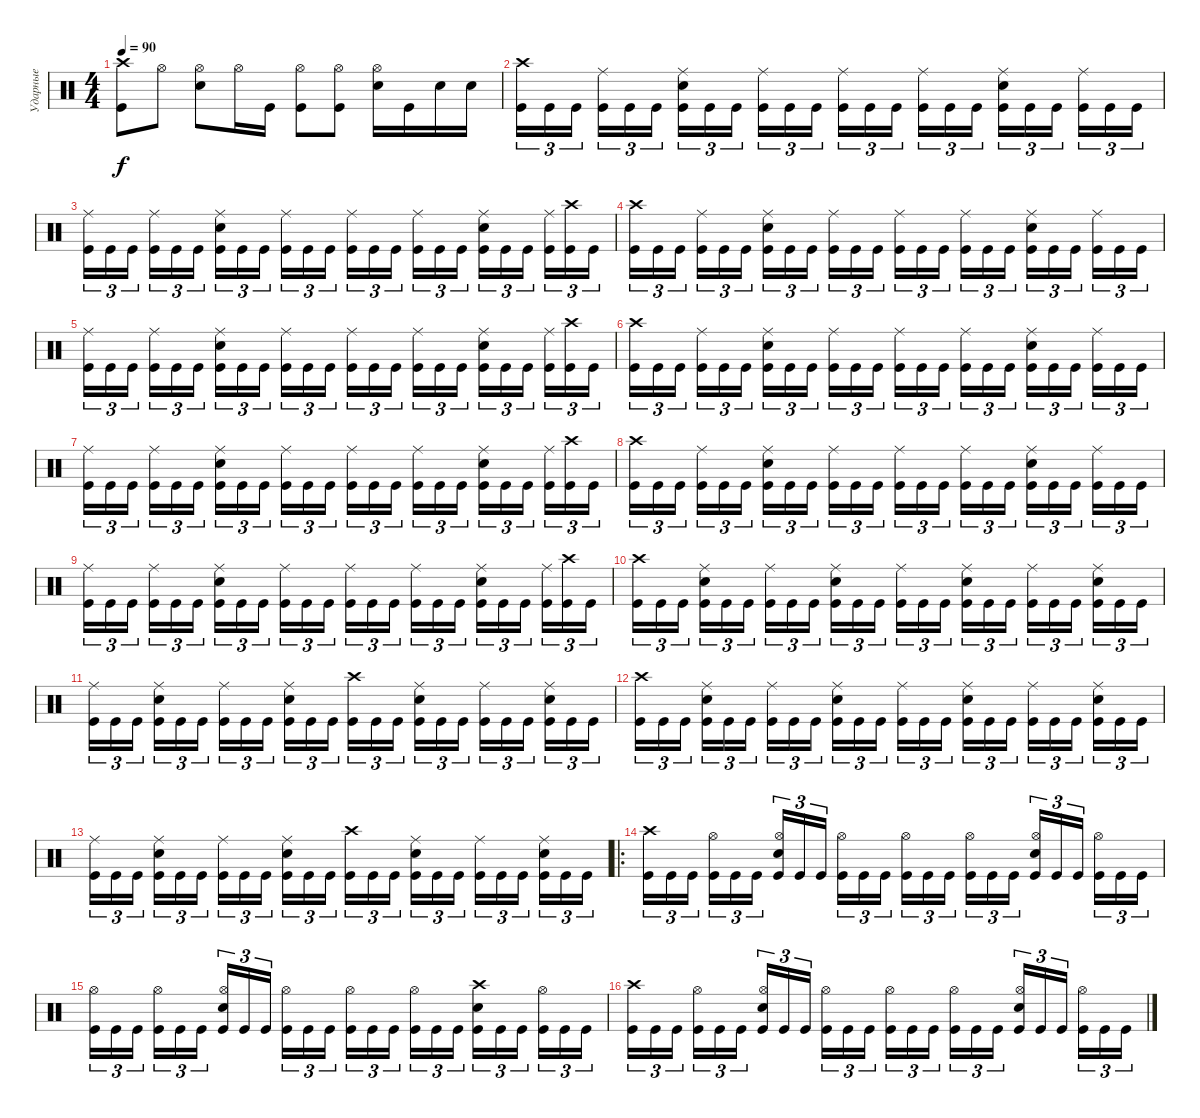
\track ("Ударные" "Ударные") {instrument percussion}
\staff {score}
\articulation defaults
\ts (4 4)
\tempo 90
\clef neutral
\ks c
("Crash high (hit)" "Kick (hit)").8{dy f} "Hi-Hat (open)".8 ("Hi-Hat (open)" "Snare (hit) 2").8 "Hi-Hat (open)".16 "Kick (hit)".16 ("Hi-Hat (open)" "Kick (hit)").8 ("Kick (hit)" "Hi-Hat (open)").8 ("Snare (hit) 2" "Hi-Hat (open)").16 "Kick (hit)".16 "Snare (hit) 2".16 "Snare (hit) 2".16 |
("Crash high (hit)" "Kick (hit)").16{tu (3 2)} "Kick (hit)".16{tu (3 2)} "Kick (hit)".16{tu (3 2) beam splitsecondary} ("Ride (middle)" "Kick (hit)").16{tu (3 2)} "Kick (hit)".16{tu (3 2)} "Kick (hit)".16{tu (3 2)} ("Ride (middle)" "Snare (hit) 2" "Kick (hit)").16{tu (3 2)} "Kick (hit)".16{tu (3 2)} "Kick (hit)".16{tu (3 2) beam splitsecondary} ("Ride (middle)" "Kick (hit)").16{tu (3 2)} "Kick (hit)".16{tu (3 2)} "Kick (hit)".16{tu (3 2)} ("Ride (middle)" "Kick (hit)").16{tu (3 2)} "Kick (hit)".16{tu (3 2)} "Kick (hit)".16{tu (3 2) beam splitsecondary} ("Ride (middle)" "Kick (hit)").16{tu (3 2)} "Kick (hit)".16{tu (3 2)} "Kick (hit)".16{tu (3 2)} ("Ride (middle)" "Snare (hit) 2" "Kick (hit)").16{tu (3 2)} "Kick (hit)".16{tu (3 2)} "Kick (hit)".16{tu (3 2) beam splitsecondary} ("Ride (middle)" "Kick (hit)").16{tu (3 2)} "Kick (hit)".16{tu (3 2)} "Kick (hit)".16{tu (3 2)} |
("Ride (middle)" "Kick (hit)").16{tu (3 2)} "Kick (hit)".16{tu (3 2)} "Kick (hit)".16{tu (3 2) beam splitsecondary} ("Ride (middle)" "Kick (hit)").16{tu (3 2)} "Kick (hit)".16{tu (3 2)} "Kick (hit)".16{tu (3 2)} ("Ride (middle)" "Snare (hit) 2" "Kick (hit)").16{tu (3 2)} "Kick (hit)".16{tu (3 2)} "Kick (hit)".16{tu (3 2) beam splitsecondary} ("Ride (middle)" "Kick (hit)").16{tu (3 2)} "Kick (hit)".16{tu (3 2)} "Kick (hit)".16{tu (3 2)} ("Ride (middle)" "Kick (hit)").16{tu (3 2)} "Kick (hit)".16{tu (3 2)} "Kick (hit)".16{tu (3 2) beam splitsecondary} ("Ride (middle)" "Kick (hit)").16{tu (3 2)} "Kick (hit)".16{tu (3 2)} "Kick (hit)".16{tu (3 2)} ("Ride (middle)" "Snare (hit) 2" "Kick (hit)").16{tu (3 2)} "Kick (hit)".16{tu (3 2)} "Kick (hit)".16{tu (3 2) beam splitsecondary} ("Ride (middle)" "Kick (hit)").16{tu (3 2)} ("Crash high (hit)" "Kick (hit)").16{tu (3 2)} "Kick (hit)".16{tu (3 2)} |
("Crash high (hit)" "Kick (hit)").16{tu (3 2)} "Kick (hit)".16{tu (3 2)} "Kick (hit)".16{tu (3 2) beam splitsecondary} ("Ride (middle)" "Kick (hit)").16{tu (3 2)} "Kick (hit)".16{tu (3 2)} "Kick (hit)".16{tu (3 2)} ("Ride (middle)" "Snare (hit) 2" "Kick (hit)").16{tu (3 2)} "Kick (hit)".16{tu (3 2)} "Kick (hit)".16{tu (3 2) beam splitsecondary} ("Ride (middle)" "Kick (hit)").16{tu (3 2)} "Kick (hit)".16{tu (3 2)} "Kick (hit)".16{tu (3 2)} ("Ride (middle)" "Kick (hit)").16{tu (3 2)} "Kick (hit)".16{tu (3 2)} "Kick (hit)".16{tu (3 2) beam splitsecondary} ("Ride (middle)" "Kick (hit)").16{tu (3 2)} "Kick (hit)".16{tu (3 2)} "Kick (hit)".16{tu (3 2)} ("Ride (middle)" "Snare (hit) 2" "Kick (hit)").16{tu (3 2)} "Kick (hit)".16{tu (3 2)} "Kick (hit)".16{tu (3 2) beam splitsecondary} ("Ride (middle)" "Kick (hit)").16{tu (3 2)} "Kick (hit)".16{tu (3 2)} "Kick (hit)".16{tu (3 2)} |
("Ride (middle)" "Kick (hit)").16{tu (3 2)} "Kick (hit)".16{tu (3 2)} "Kick (hit)".16{tu (3 2) beam splitsecondary} ("Ride (middle)" "Kick (hit)").16{tu (3 2)} "Kick (hit)".16{tu (3 2)} "Kick (hit)".16{tu (3 2)} ("Ride (middle)" "Snare (hit) 2" "Kick (hit)").16{tu (3 2)} "Kick (hit)".16{tu (3 2)} "Kick (hit)".16{tu (3 2) beam splitsecondary} ("Ride (middle)" "Kick (hit)").16{tu (3 2)} "Kick (hit)".16{tu (3 2)} "Kick (hit)".16{tu (3 2)} ("Ride (middle)" "Kick (hit)").16{tu (3 2)} "Kick (hit)".16{tu (3 2)} "Kick (hit)".16{tu (3 2) beam splitsecondary} ("Ride (middle)" "Kick (hit)").16{tu (3 2)} "Kick (hit)".16{tu (3 2)} "Kick (hit)".16{tu (3 2)} ("Ride (middle)" "Snare (hit) 2" "Kick (hit)").16{tu (3 2)} "Kick (hit)".16{tu (3 2)} "Kick (hit)".16{tu (3 2) beam splitsecondary} ("Ride (middle)" "Kick (hit)").16{tu (3 2)} ("Crash high (hit)" "Kick (hit)").16{tu (3 2)} "Kick (hit)".16{tu (3 2)} |
("Crash high (hit)" "Kick (hit)").16{tu (3 2)} "Kick (hit)".16{tu (3 2)} "Kick (hit)".16{tu (3 2) beam splitsecondary} ("Ride (middle)" "Kick (hit)").16{tu (3 2)} "Kick (hit)".16{tu (3 2)} "Kick (hit)".16{tu (3 2)} ("Ride (middle)" "Snare (hit) 2" "Kick (hit)").16{tu (3 2)} "Kick (hit)".16{tu (3 2)} "Kick (hit)".16{tu (3 2) beam splitsecondary} ("Ride (middle)" "Kick (hit)").16{tu (3 2)} "Kick (hit)".16{tu (3 2)} "Kick (hit)".16{tu (3 2)} ("Ride (middle)" "Kick (hit)").16{tu (3 2)} "Kick (hit)".16{tu (3 2)} "Kick (hit)".16{tu (3 2) beam splitsecondary} ("Ride (middle)" "Kick (hit)").16{tu (3 2)} "Kick (hit)".16{tu (3 2)} "Kick (hit)".16{tu (3 2)} ("Ride (middle)" "Snare (hit) 2" "Kick (hit)").16{tu (3 2)} "Kick (hit)".16{tu (3 2)} "Kick (hit)".16{tu (3 2) beam splitsecondary} ("Ride (middle)" "Kick (hit)").16{tu (3 2)} "Kick (hit)".16{tu (3 2)} "Kick (hit)".16{tu (3 2)} |
("Ride (middle)" "Kick (hit)").16{tu (3 2)} "Kick (hit)".16{tu (3 2)} "Kick (hit)".16{tu (3 2) beam splitsecondary} ("Ride (middle)" "Kick (hit)").16{tu (3 2)} "Kick (hit)".16{tu (3 2)} "Kick (hit)".16{tu (3 2)} ("Ride (middle)" "Snare (hit) 2" "Kick (hit)").16{tu (3 2)} "Kick (hit)".16{tu (3 2)} "Kick (hit)".16{tu (3 2) beam splitsecondary} ("Ride (middle)" "Kick (hit)").16{tu (3 2)} "Kick (hit)".16{tu (3 2)} "Kick (hit)".16{tu (3 2)} ("Ride (middle)" "Kick (hit)").16{tu (3 2)} "Kick (hit)".16{tu (3 2)} "Kick (hit)".16{tu (3 2) beam splitsecondary} ("Ride (middle)" "Kick (hit)").16{tu (3 2)} "Kick (hit)".16{tu (3 2)} "Kick (hit)".16{tu (3 2)} ("Ride (middle)" "Snare (hit) 2" "Kick (hit)").16{tu (3 2)} "Kick (hit)".16{tu (3 2)} "Kick (hit)".16{tu (3 2) beam splitsecondary} ("Ride (middle)" "Kick (hit)").16{tu (3 2)} ("Crash high (hit)" "Kick (hit)").16{tu (3 2)} "Kick (hit)".16{tu (3 2)} |
("Crash high (hit)" "Kick (hit)").16{tu (3 2)} "Kick (hit)".16{tu (3 2)} "Kick (hit)".16{tu (3 2) beam splitsecondary} ("Ride (middle)" "Kick (hit)").16{tu (3 2)} "Kick (hit)".16{tu (3 2)} "Kick (hit)".16{tu (3 2)} ("Ride (middle)" "Snare (hit) 2" "Kick (hit)").16{tu (3 2)} "Kick (hit)".16{tu (3 2)} "Kick (hit)".16{tu (3 2) beam splitsecondary} ("Ride (middle)" "Kick (hit)").16{tu (3 2)} "Kick (hit)".16{tu (3 2)} "Kick (hit)".16{tu (3 2)} ("Ride (middle)" "Kick (hit)").16{tu (3 2)} "Kick (hit)".16{tu (3 2)} "Kick (hit)".16{tu (3 2) beam splitsecondary} ("Ride (middle)" "Kick (hit)").16{tu (3 2)} "Kick (hit)".16{tu (3 2)} "Kick (hit)".16{tu (3 2)} ("Ride (middle)" "Snare (hit) 2" "Kick (hit)").16{tu (3 2)} "Kick (hit)".16{tu (3 2)} "Kick (hit)".16{tu (3 2) beam splitsecondary} ("Ride (middle)" "Kick (hit)").16{tu (3 2)} "Kick (hit)".16{tu (3 2)} "Kick (hit)".16{tu (3 2)} |
("Ride (middle)" "Kick (hit)").16{tu (3 2)} "Kick (hit)".16{tu (3 2)} "Kick (hit)".16{tu (3 2) beam splitsecondary} ("Ride (middle)" "Kick (hit)").16{tu (3 2)} "Kick (hit)".16{tu (3 2)} "Kick (hit)".16{tu (3 2)} ("Ride (middle)" "Snare (hit) 2" "Kick (hit)").16{tu (3 2)} "Kick (hit)".16{tu (3 2)} "Kick (hit)".16{tu (3 2) beam splitsecondary} ("Ride (middle)" "Kick (hit)").16{tu (3 2)} "Kick (hit)".16{tu (3 2)} "Kick (hit)".16{tu (3 2)} ("Ride (middle)" "Kick (hit)").16{tu (3 2)} "Kick (hit)".16{tu (3 2)} "Kick (hit)".16{tu (3 2) beam splitsecondary} ("Ride (middle)" "Kick (hit)").16{tu (3 2)} "Kick (hit)".16{tu (3 2)} "Kick (hit)".16{tu (3 2)} ("Ride (middle)" "Snare (hit) 2" "Kick (hit)").16{tu (3 2)} "Kick (hit)".16{tu (3 2)} "Kick (hit)".16{tu (3 2) beam splitsecondary} ("Ride (middle)" "Kick (hit)").16{tu (3 2)} ("Crash high (hit)" "Kick (hit)").16{tu (3 2)} "Kick (hit)".16{tu (3 2)} |
("Crash high (hit)" "Kick (hit)").16{tu (3 2)} "Kick (hit)".16{tu (3 2)} "Kick (hit)".16{tu (3 2) beam splitsecondary} ("Snare (hit) 2" "Ride (middle)" "Kick (hit)").16{tu (3 2)} "Kick (hit)".16{tu (3 2)} "Kick (hit)".16{tu (3 2)} ("Ride (middle)" "Kick (hit)").16{tu (3 2)} "Kick (hit)".16{tu (3 2)} "Kick (hit)".16{tu (3 2) beam splitsecondary} ("Snare (hit) 2" "Ride (middle)" "Kick (hit)").16{tu (3 2)} "Kick (hit)".16{tu (3 2)} "Kick (hit)".16{tu (3 2)} ("Ride (middle)" "Kick (hit)").16{tu (3 2)} "Kick (hit)".16{tu (3 2)} "Kick (hit)".16{tu (3 2) beam splitsecondary} ("Snare (hit) 2" "Ride (middle)" "Kick (hit)").16{tu (3 2)} "Kick (hit)".16{tu (3 2)} "Kick (hit)".16{tu (3 2)} ("Ride (middle)" "Kick (hit)").16{tu (3 2)} "Kick (hit)".16{tu (3 2)} "Kick (hit)".16{tu (3 2) beam splitsecondary} ("Snare (hit) 2" "Ride (middle)" "Kick (hit)").16{tu (3 2)} "Kick (hit)".16{tu (3 2)} "Kick (hit)".16{tu (3 2)} |
("Ride (middle)" "Kick (hit)").16{tu (3 2)} "Kick (hit)".16{tu (3 2)} "Kick (hit)".16{tu (3 2) beam splitsecondary} ("Snare (hit) 2" "Ride (middle)" "Kick (hit)").16{tu (3 2)} "Kick (hit)".16{tu (3 2)} "Kick (hit)".16{tu (3 2)} ("Ride (middle)" "Kick (hit)").16{tu (3 2)} "Kick (hit)".16{tu (3 2)} "Kick (hit)".16{tu (3 2) beam splitsecondary} ("Snare (hit) 2" "Ride (middle)" "Kick (hit)").16{tu (3 2)} "Kick (hit)".16{tu (3 2)} "Kick (hit)".16{tu (3 2)} ("Crash high (hit)" "Kick (hit)").16{tu (3 2)} "Kick (hit)".16{tu (3 2)} "Kick (hit)".16{tu (3 2) beam splitsecondary} ("Snare (hit) 2" "Ride (middle)" "Kick (hit)").16{tu (3 2)} "Kick (hit)".16{tu (3 2)} "Kick (hit)".16{tu (3 2)} ("Ride (middle)" "Kick (hit)").16{tu (3 2)} "Kick (hit)".16{tu (3 2)} "Kick (hit)".16{tu (3 2) beam splitsecondary} ("Snare (hit) 2" "Ride (middle)" "Kick (hit)").16{tu (3 2)} "Kick (hit)".16{tu (3 2)} "Kick (hit)".16{tu (3 2)} |
("Crash high (hit)" "Kick (hit)").16{tu (3 2)} "Kick (hit)".16{tu (3 2)} "Kick (hit)".16{tu (3 2) beam splitsecondary} ("Snare (hit) 2" "Ride (middle)" "Kick (hit)").16{tu (3 2)} "Kick (hit)".16{tu (3 2)} "Kick (hit)".16{tu (3 2)} ("Ride (middle)" "Kick (hit)").16{tu (3 2)} "Kick (hit)".16{tu (3 2)} "Kick (hit)".16{tu (3 2) beam splitsecondary} ("Snare (hit) 2" "Ride (middle)" "Kick (hit)").16{tu (3 2)} "Kick (hit)".16{tu (3 2)} "Kick (hit)".16{tu (3 2)} ("Ride (middle)" "Kick (hit)").16{tu (3 2)} "Kick (hit)".16{tu (3 2)} "Kick (hit)".16{tu (3 2) beam splitsecondary} ("Snare (hit) 2" "Ride (middle)" "Kick (hit)").16{tu (3 2)} "Kick (hit)".16{tu (3 2)} "Kick (hit)".16{tu (3 2)} ("Ride (middle)" "Kick (hit)").16{tu (3 2)} "Kick (hit)".16{tu (3 2)} "Kick (hit)".16{tu (3 2) beam splitsecondary} ("Snare (hit) 2" "Ride (middle)" "Kick (hit)").16{tu (3 2)} "Kick (hit)".16{tu (3 2)} "Kick (hit)".16{tu (3 2)} |
("Ride (middle)" "Kick (hit)").16{tu (3 2)} "Kick (hit)".16{tu (3 2)} "Kick (hit)".16{tu (3 2) beam splitsecondary} ("Snare (hit) 2" "Ride (middle)" "Kick (hit)").16{tu (3 2)} "Kick (hit)".16{tu (3 2)} "Kick (hit)".16{tu (3 2)} ("Ride (middle)" "Kick (hit)").16{tu (3 2)} "Kick (hit)".16{tu (3 2)} "Kick (hit)".16{tu (3 2) beam splitsecondary} ("Snare (hit) 2" "Ride (middle)" "Kick (hit)").16{tu (3 2)} "Kick (hit)".16{tu (3 2)} "Kick (hit)".16{tu (3 2)} ("Crash high (hit)" "Kick (hit)").16{tu (3 2)} "Kick (hit)".16{tu (3 2)} "Kick (hit)".16{tu (3 2) beam splitsecondary} ("Snare (hit) 2" "Ride (middle)" "Kick (hit)").16{tu (3 2)} "Kick (hit)".16{tu (3 2)} "Kick (hit)".16{tu (3 2)} ("Ride (middle)" "Kick (hit)").16{tu (3 2)} "Kick (hit)".16{tu (3 2)} "Kick (hit)".16{tu (3 2) beam splitsecondary} ("Snare (hit) 2" "Ride (middle)" "Kick (hit)").16{tu (3 2)} "Kick (hit)".16{tu (3 2)} "Kick (hit)".16{tu (3 2)} |
\ro
("Crash high (hit)" "Kick (hit)").16{tu (3 2)} "Kick (hit)".16{tu (3 2)} "Kick (hit)".16{tu (3 2) beam splitsecondary} ("Hi-Hat (open)" "Kick (hit)").16{tu (3 2)} "Kick (hit)".16{tu (3 2)} "Kick (hit)".16{tu (3 2)} ("Snare (hit) 2" "Hi-Hat (open)" "Kick (hit)").16{tu (3 2)} "Kick (hit)".16{tu (3 2)} "Kick (hit)".16{tu (3 2) beam splitsecondary} ("Hi-Hat (open)" "Kick (hit)").16{tu (3 2)} "Kick (hit)".16{tu (3 2)} "Kick (hit)".16{tu (3 2)} ("Hi-Hat (open)" "Kick (hit)").16{tu (3 2)} "Kick (hit)".16{tu (3 2)} "Kick (hit)".16{tu (3 2) beam splitsecondary} ("Hi-Hat (open)" "Kick (hit)").16{tu (3 2)} "Kick (hit)".16{tu (3 2)} "Kick (hit)".16{tu (3 2)} ("Snare (hit) 2" "Hi-Hat (open)" "Kick (hit)").16{tu (3 2)} "Kick (hit)".16{tu (3 2)} "Kick (hit)".16{tu (3 2) beam splitsecondary} ("Hi-Hat (open)" "Kick (hit)").16{tu (3 2)} "Kick (hit)".16{tu (3 2)} "Kick (hit)".16{tu (3 2)} |
("Hi-Hat (open)" "Kick (hit)").16{tu (3 2)} "Kick (hit)".16{tu (3 2)} "Kick (hit)".16{tu (3 2) beam splitsecondary} ("Hi-Hat (open)" "Kick (hit)").16{tu (3 2)} "Kick (hit)".16{tu (3 2)} "Kick (hit)".16{tu (3 2)} ("Snare (hit) 2" "Hi-Hat (open)" "Kick (hit)").16{tu (3 2)} "Kick (hit)".16{tu (3 2)} "Kick (hit)".16{tu (3 2) beam splitsecondary} ("Hi-Hat (open)" "Kick (hit)").16{tu (3 2)} "Kick (hit)".16{tu (3 2)} "Kick (hit)".16{tu (3 2)} ("Hi-Hat (open)" "Kick (hit)").16{tu (3 2)} "Kick (hit)".16{tu (3 2)} "Kick (hit)".16{tu (3 2) beam splitsecondary} ("Hi-Hat (open)" "Kick (hit)").16{tu (3 2)} "Kick (hit)".16{tu (3 2)} "Kick (hit)".16{tu (3 2)} ("Snare (hit) 2" "Crash high (hit)" "Kick (hit)").16{tu (3 2)} "Kick (hit)".16{tu (3 2)} "Kick (hit)".16{tu (3 2) beam splitsecondary} ("Hi-Hat (open)" "Kick (hit)").16{tu (3 2)} "Kick (hit)".16{tu (3 2)} "Kick (hit)".16{tu (3 2)} |
("Crash high (hit)" "Kick (hit)").16{tu (3 2)} "Kick (hit)".16{tu (3 2)} "Kick (hit)".16{tu (3 2) beam splitsecondary} ("Hi-Hat (open)" "Kick (hit)").16{tu (3 2)} "Kick (hit)".16{tu (3 2)} "Kick (hit)".16{tu (3 2)} ("Snare (hit) 2" "Hi-Hat (open)" "Kick (hit)").16{tu (3 2)} "Kick (hit)".16{tu (3 2)} "Kick (hit)".16{tu (3 2) beam splitsecondary} ("Hi-Hat (open)" "Kick (hit)").16{tu (3 2)} "Kick (hit)".16{tu (3 2)} "Kick (hit)".16{tu (3 2)} ("Hi-Hat (open)" "Kick (hit)").16{tu (3 2)} "Kick (hit)".16{tu (3 2)} "Kick (hit)".16{tu (3 2) beam splitsecondary} ("Hi-Hat (open)" "Kick (hit)").16{tu (3 2)} "Kick (hit)".16{tu (3 2)} "Kick (hit)".16{tu (3 2)} ("Snare (hit) 2" "Hi-Hat (open)" "Kick (hit)").16{tu (3 2)} "Kick (hit)".16{tu (3 2)} "Kick (hit)".16{tu (3 2) beam splitsecondary} ("Hi-Hat (open)" "Kick (hit)").16{tu (3 2)} "Kick (hit)".16{tu (3 2)} "Kick (hit)".16{tu (3 2)}
